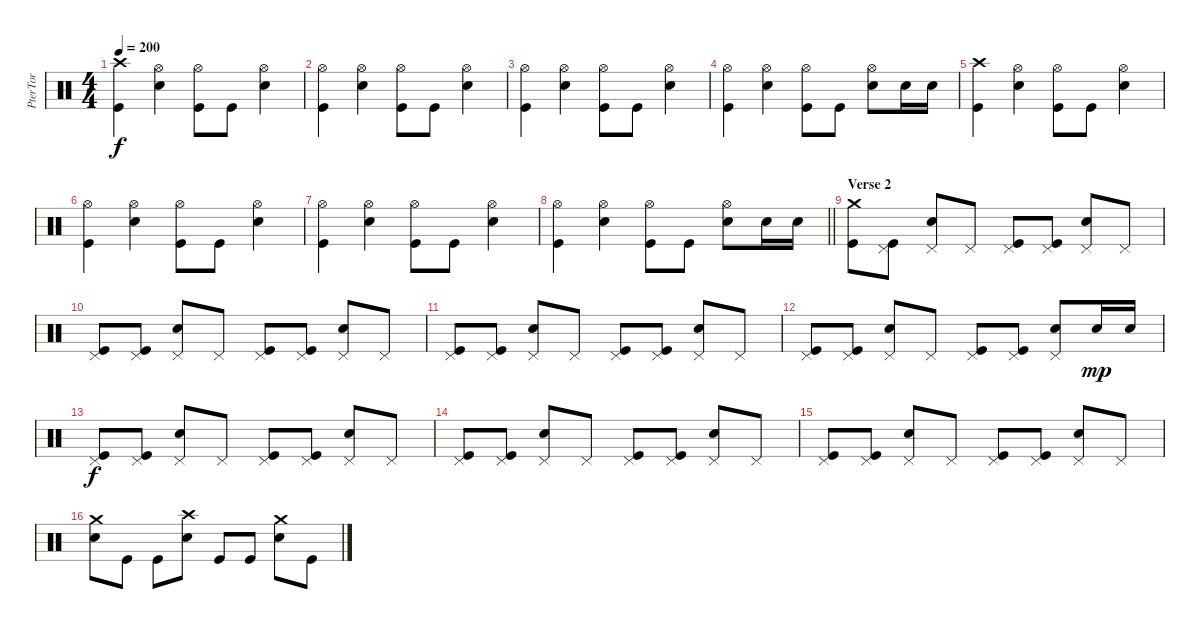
\track ("PterTor" "PterTor") {instrument percussion}
\staff {score}
\articulation defaults
\ts (4 4)
\tempo 200
\clef neutral
\ks c
("Crash high (hit)" "Kick (hit)").4{dy f} ("Hi-Hat (open)" "Snare (hit) 2").4 ("Hi-Hat (open)" "Kick (hit)").8 "Kick (hit)".8 ("Hi-Hat (open)" "Snare (hit) 2").4 |
("Hi-Hat (open)" "Kick (hit)").4 ("Hi-Hat (open)" "Snare (hit) 2").4 ("Hi-Hat (open)" "Kick (hit)").8 "Kick (hit)".8 ("Hi-Hat (open)" "Snare (hit) 2").4 |
("Hi-Hat (open)" "Kick (hit)").4 ("Hi-Hat (open)" "Snare (hit) 2").4 ("Hi-Hat (open)" "Kick (hit)").8 "Kick (hit)".8 ("Hi-Hat (open)" "Snare (hit) 2").4 |
("Hi-Hat (open)" "Kick (hit)").4 ("Hi-Hat (open)" "Snare (hit) 2").4 ("Hi-Hat (open)" "Kick (hit)").8 "Kick (hit)".8 ("Hi-Hat (open)" "Snare (hit) 2").8 "Snare (hit) 2".16 "Snare (hit) 2".16 |
("Crash high (hit)" "Kick (hit)").4 ("Hi-Hat (open)" "Snare (hit) 2").4 ("Hi-Hat (open)" "Kick (hit)").8 "Kick (hit)".8 ("Hi-Hat (open)" "Snare (hit) 2").4 |
("Hi-Hat (open)" "Kick (hit)").4 ("Hi-Hat (open)" "Snare (hit) 2").4 ("Hi-Hat (open)" "Kick (hit)").8 "Kick (hit)".8 ("Hi-Hat (open)" "Snare (hit) 2").4 |
("Hi-Hat (open)" "Kick (hit)").4 ("Hi-Hat (open)" "Snare (hit) 2").4 ("Hi-Hat (open)" "Kick (hit)").8 "Kick (hit)".8 ("Hi-Hat (open)" "Snare (hit) 2").4 |
\barLineRight lightlight
("Hi-Hat (open)" "Kick (hit)").4 ("Hi-Hat (open)" "Snare (hit) 2").4 ("Hi-Hat (open)" "Kick (hit)").8 "Kick (hit)".8 ("Hi-Hat (open)" "Snare (hit) 2").8 "Snare (hit) 2".16 "Snare (hit) 2".16 |
\section ("" "Verse 2")
("Crash medium (hit)" "Kick (hit)").8 ("Pedal Hi-Hat (hit)" "Kick (hit)").8 ("Pedal Hi-Hat (hit)" "Snare (hit) 2").8 "Pedal Hi-Hat (hit)".8 ("Pedal Hi-Hat (hit)" "Kick (hit)").8 ("Pedal Hi-Hat (hit)" "Kick (hit)").8 ("Pedal Hi-Hat (hit)" "Snare (hit) 2").8 "Pedal Hi-Hat (hit)".8 |
("Pedal Hi-Hat (hit)" "Kick (hit)").8 ("Pedal Hi-Hat (hit)" "Kick (hit)").8 ("Pedal Hi-Hat (hit)" "Snare (hit) 2").8 "Pedal Hi-Hat (hit)".8 ("Pedal Hi-Hat (hit)" "Kick (hit)").8 ("Pedal Hi-Hat (hit)" "Kick (hit)").8 ("Pedal Hi-Hat (hit)" "Snare (hit) 2").8 "Pedal Hi-Hat (hit)".8 |
("Pedal Hi-Hat (hit)" "Kick (hit)").8 ("Pedal Hi-Hat (hit)" "Kick (hit)").8 ("Pedal Hi-Hat (hit)" "Snare (hit) 2").8 "Pedal Hi-Hat (hit)".8 ("Pedal Hi-Hat (hit)" "Kick (hit)").8 ("Pedal Hi-Hat (hit)" "Kick (hit)").8 ("Pedal Hi-Hat (hit)" "Snare (hit) 2").8 "Pedal Hi-Hat (hit)".8 |
("Pedal Hi-Hat (hit)" "Kick (hit)").8 ("Pedal Hi-Hat (hit)" "Kick (hit)").8 ("Pedal Hi-Hat (hit)" "Snare (hit) 2").8 "Pedal Hi-Hat (hit)".8 ("Pedal Hi-Hat (hit)" "Kick (hit)").8 ("Pedal Hi-Hat (hit)" "Kick (hit)").8 ("Pedal Hi-Hat (hit)" "Snare (hit) 2").8 "Snare (hit) 2".16{dy mp} "Snare (hit) 2".16 |
("Pedal Hi-Hat (hit)" "Kick (hit)").8{dy f} ("Pedal Hi-Hat (hit)" "Kick (hit)").8 ("Pedal Hi-Hat (hit)" "Snare (hit) 2").8 "Pedal Hi-Hat (hit)".8 ("Pedal Hi-Hat (hit)" "Kick (hit)").8 ("Pedal Hi-Hat (hit)" "Kick (hit)").8 ("Pedal Hi-Hat (hit)" "Snare (hit) 2").8 "Pedal Hi-Hat (hit)".8 |
("Pedal Hi-Hat (hit)" "Kick (hit)").8 ("Pedal Hi-Hat (hit)" "Kick (hit)").8 ("Pedal Hi-Hat (hit)" "Snare (hit) 2").8 "Pedal Hi-Hat (hit)".8 ("Pedal Hi-Hat (hit)" "Kick (hit)").8 ("Pedal Hi-Hat (hit)" "Kick (hit)").8 ("Pedal Hi-Hat (hit)" "Snare (hit) 2").8 "Pedal Hi-Hat (hit)".8 |
("Pedal Hi-Hat (hit)" "Kick (hit)").8 ("Pedal Hi-Hat (hit)" "Kick (hit)").8 ("Pedal Hi-Hat (hit)" "Snare (hit) 2").8 "Pedal Hi-Hat (hit)".8 ("Pedal Hi-Hat (hit)" "Kick (hit)").8 ("Pedal Hi-Hat (hit)" "Kick (hit)").8 ("Pedal Hi-Hat (hit)" "Snare (hit) 2").8 "Pedal Hi-Hat (hit)".8 |
("Crash medium (hit)" "Snare (hit) 2").8 "Kick (hit)".8 "Kick (hit)".8 ("Crash high (hit)" "Snare (hit) 2").8 "Kick (hit)".8 "Kick (hit)".8 ("Crash medium (hit)" "Snare (hit) 2").8 "Kick (hit)".8
